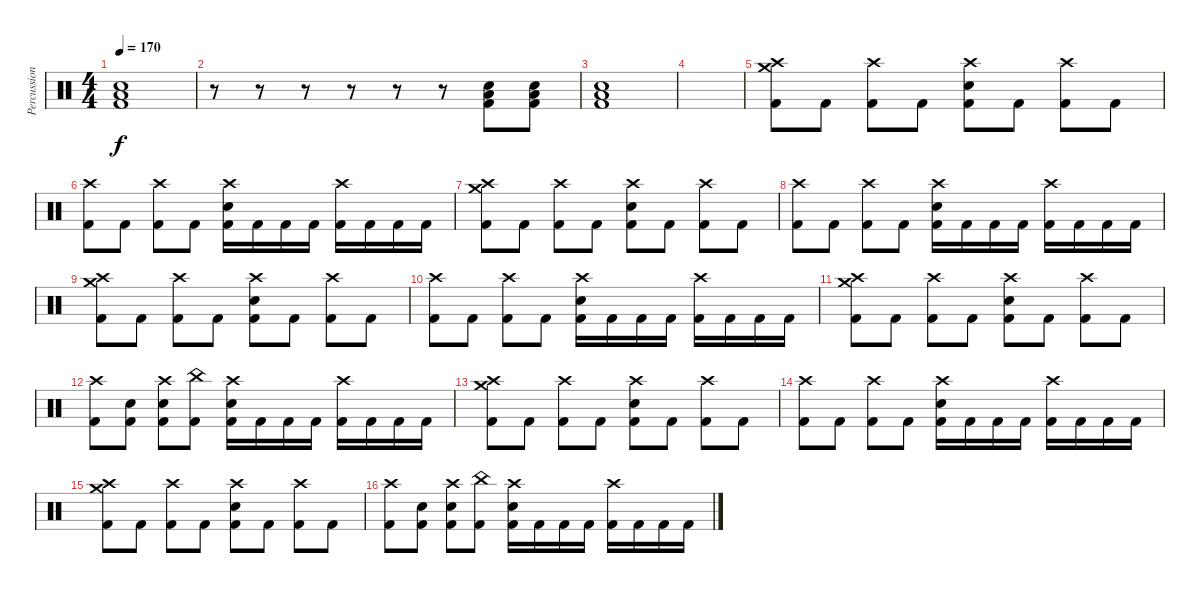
\track ("Percussion" "Percussion") {instrument percussion}
\staff {score}
\articulation defaults
\ts (4 4)
\tempo 170
\clef neutral
\ks c
("Low Floor Tom (hit)" "Kick (hit) 2" "Snare (hit) 2").1{dy f volume 16} |
r.8 r.8 r.8 r.8 r.8 r.8 ("Low Floor Tom (hit)" "Kick (hit) 2" "Snare (hit) 2").8 ("Low Floor Tom (hit)" "Kick (hit) 2" "Snare (hit) 2").8 |
("Low Floor Tom (hit)" "Kick (hit) 2" "Snare (hit) 2").1 |
|
("Crash medium (hit)" "Crash high (hit)" "Kick (hit) 2").8 "Kick (hit) 2".8 ("Crash high (hit)" "Kick (hit) 2").8 "Kick (hit) 2".8 ("Snare (hit) 2" "Crash high (hit)" "Kick (hit) 2").8 "Kick (hit) 2".8 ("Crash high (hit)" "Kick (hit) 2").8 "Kick (hit) 2".8 |
("Crash high (hit)" "Kick (hit) 2").8 "Kick (hit) 2".8 ("Crash high (hit)" "Kick (hit) 2").8 "Kick (hit) 2".8 ("Snare (hit) 2" "Crash high (hit)" "Kick (hit) 2").16 "Kick (hit) 2".16 "Kick (hit) 2".16 "Kick (hit) 2".16 ("Crash high (hit)" "Kick (hit) 2").16 "Kick (hit) 2".16 "Kick (hit) 2".16 "Kick (hit) 2".16 |
("Crash medium (hit)" "Crash high (hit)" "Kick (hit) 2").8 "Kick (hit) 2".8 ("Crash high (hit)" "Kick (hit) 2").8 "Kick (hit) 2".8 ("Snare (hit) 2" "Crash high (hit)" "Kick (hit) 2").8 "Kick (hit) 2".8 ("Crash high (hit)" "Kick (hit) 2").8 "Kick (hit) 2".8 |
("Crash high (hit)" "Kick (hit) 2").8 "Kick (hit) 2".8 ("Crash high (hit)" "Kick (hit) 2").8 "Kick (hit) 2".8 ("Snare (hit) 2" "Crash high (hit)" "Kick (hit) 2").16 "Kick (hit) 2".16 "Kick (hit) 2".16 "Kick (hit) 2".16 ("Crash high (hit)" "Kick (hit) 2").16 "Kick (hit) 2".16 "Kick (hit) 2".16 "Kick (hit) 2".16 |
("Crash medium (hit)" "Crash high (hit)" "Kick (hit) 2").8 "Kick (hit) 2".8 ("Crash high (hit)" "Kick (hit) 2").8 "Kick (hit) 2".8 ("Snare (hit) 2" "Crash high (hit)" "Kick (hit) 2").8 "Kick (hit) 2".8 ("Crash high (hit)" "Kick (hit) 2").8 "Kick (hit) 2".8 |
("Crash high (hit)" "Kick (hit) 2").8 "Kick (hit) 2".8 ("Crash high (hit)" "Kick (hit) 2").8 "Kick (hit) 2".8 ("Snare (hit) 2" "Crash high (hit)" "Kick (hit) 2").16 "Kick (hit) 2".16 "Kick (hit) 2".16 "Kick (hit) 2".16 ("Crash high (hit)" "Kick (hit) 2").16 "Kick (hit) 2".16 "Kick (hit) 2".16 "Kick (hit) 2".16 |
("Crash medium (hit)" "Crash high (hit)" "Kick (hit) 2").8 "Kick (hit) 2".8 ("Crash high (hit)" "Kick (hit) 2").8 "Kick (hit) 2".8 ("Snare (hit) 2" "Crash high (hit)" "Kick (hit) 2").8 "Kick (hit) 2".8 ("Crash high (hit)" "Kick (hit) 2").8 "Kick (hit) 2".8 |
("Crash high (hit)" "Kick (hit) 2").8 ("Snare (hit) 2" "Kick (hit) 2").8 ("Snare (hit) 2" "Crash high (hit)" "Kick (hit) 2").8 ("China (hit)" "Kick (hit) 2").8 ("Snare (hit) 2" "Crash high (hit)" "Kick (hit) 2").16 "Kick (hit) 2".16 "Kick (hit) 2".16 "Kick (hit) 2".16 ("Crash high (hit)" "Kick (hit) 2").16 "Kick (hit) 2".16 "Kick (hit) 2".16 "Kick (hit) 2".16 |
("Crash medium (hit)" "Crash high (hit)" "Kick (hit) 2").8 "Kick (hit) 2".8 ("Crash high (hit)" "Kick (hit) 2").8 "Kick (hit) 2".8 ("Snare (hit) 2" "Crash high (hit)" "Kick (hit) 2").8 "Kick (hit) 2".8 ("Crash high (hit)" "Kick (hit) 2").8 "Kick (hit) 2".8 |
("Crash high (hit)" "Kick (hit) 2").8 "Kick (hit) 2".8 ("Crash high (hit)" "Kick (hit) 2").8 "Kick (hit) 2".8 ("Snare (hit) 2" "Crash high (hit)" "Kick (hit) 2").16 "Kick (hit) 2".16 "Kick (hit) 2".16 "Kick (hit) 2".16 ("Crash high (hit)" "Kick (hit) 2").16 "Kick (hit) 2".16 "Kick (hit) 2".16 "Kick (hit) 2".16 |
("Crash medium (hit)" "Crash high (hit)" "Kick (hit) 2").8 "Kick (hit) 2".8 ("Crash high (hit)" "Kick (hit) 2").8 "Kick (hit) 2".8 ("Snare (hit) 2" "Crash high (hit)" "Kick (hit) 2").8 "Kick (hit) 2".8 ("Crash high (hit)" "Kick (hit) 2").8 "Kick (hit) 2".8 |
("Crash high (hit)" "Kick (hit) 2").8 ("Snare (hit) 2" "Kick (hit) 2").8 ("Snare (hit) 2" "Crash high (hit)" "Kick (hit) 2").8 ("China (hit)" "Kick (hit) 2").8 ("Snare (hit) 2" "Crash high (hit)" "Kick (hit) 2").16 "Kick (hit) 2".16 "Kick (hit) 2".16 "Kick (hit) 2".16 ("Crash high (hit)" "Kick (hit) 2").16 "Kick (hit) 2".16 "Kick (hit) 2".16 "Kick (hit) 2".16
